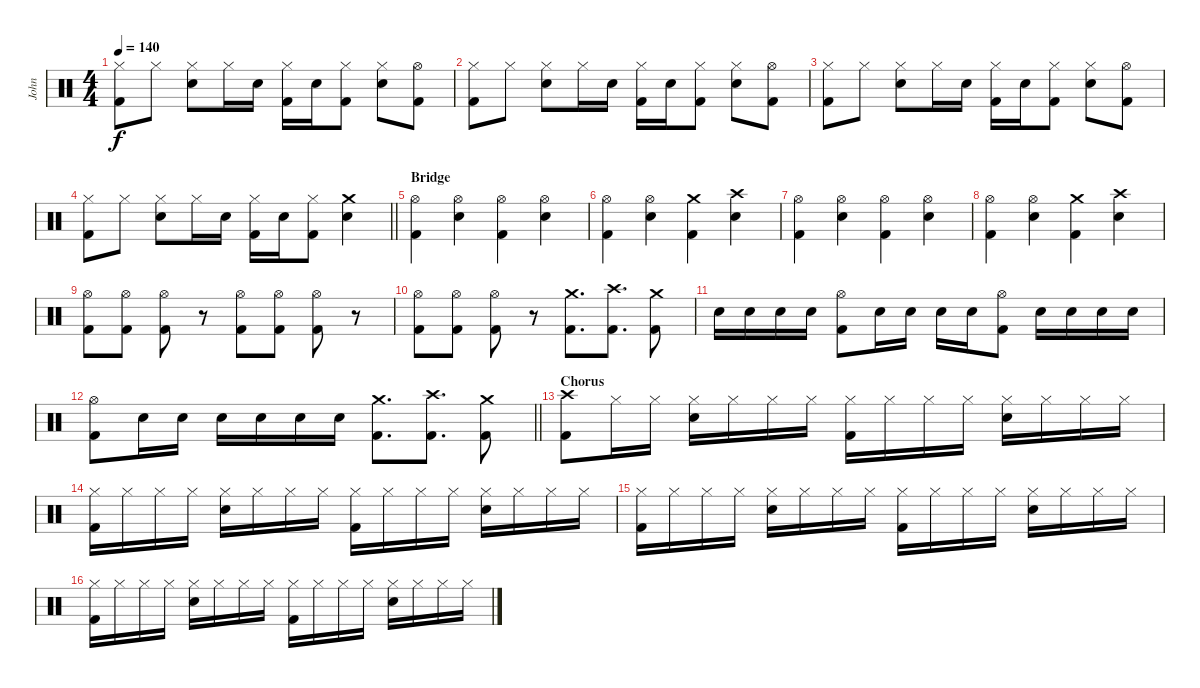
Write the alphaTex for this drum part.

\track ("John" "John") {instrument percussion}
\staff {score}
\articulation defaults
\ts (4 4)
\tempo 140
\clef neutral
\ks c
("Hi-Hat (closed)" "Kick (hit) 2").8{dy f} "Hi-Hat (closed)".8 ("Hi-Hat (closed)" "Electric Snare (hit)").8 "Hi-Hat (closed)".16 "Electric Snare (hit)".16 ("Hi-Hat (closed)" "Kick (hit) 2").16 "Electric Snare (hit)".16 ("Hi-Hat (closed)" "Kick (hit) 2").8 ("Hi-Hat (closed)" "Electric Snare (hit)").8 ("Hi-Hat (open)" "Kick (hit) 2").8 |
("Hi-Hat (closed)" "Kick (hit) 2").8 "Hi-Hat (closed)".8 ("Hi-Hat (closed)" "Electric Snare (hit)").8 "Hi-Hat (closed)".16 "Electric Snare (hit)".16 ("Hi-Hat (closed)" "Kick (hit) 2").16 "Electric Snare (hit)".16 ("Hi-Hat (closed)" "Kick (hit) 2").8 ("Hi-Hat (closed)" "Electric Snare (hit)").8 ("Hi-Hat (open)" "Kick (hit) 2").8 |
("Hi-Hat (closed)" "Kick (hit) 2").8 "Hi-Hat (closed)".8 ("Hi-Hat (closed)" "Electric Snare (hit)").8 "Hi-Hat (closed)".16 "Electric Snare (hit)".16 ("Hi-Hat (closed)" "Kick (hit) 2").16 "Electric Snare (hit)".16 ("Hi-Hat (closed)" "Kick (hit) 2").8 ("Hi-Hat (closed)" "Electric Snare (hit)").8 ("Hi-Hat (open)" "Kick (hit) 2").8 |
\barLineRight lightlight
("Hi-Hat (closed)" "Kick (hit) 2").8 "Hi-Hat (closed)".8 ("Hi-Hat (closed)" "Electric Snare (hit)").8 "Hi-Hat (closed)".16 "Electric Snare (hit)".16 ("Hi-Hat (closed)" "Kick (hit) 2").16 "Electric Snare (hit)".16 ("Hi-Hat (closed)" "Kick (hit) 2").8 ("Crash medium (hit)" "Electric Snare (hit)").4 |
\section ("" "Bridge")
("Hi-Hat (open)" "Kick (hit) 2").4 ("Hi-Hat (open)" "Electric Snare (hit)").4 ("Hi-Hat (open)" "Kick (hit) 2").4 ("Hi-Hat (open)" "Electric Snare (hit)").4 |
("Hi-Hat (open)" "Kick (hit) 2").4 ("Hi-Hat (open)" "Electric Snare (hit)").4 ("Crash medium (hit)" "Kick (hit) 2").4 ("Crash high (hit)" "Electric Snare (hit)").4 |
("Hi-Hat (open)" "Kick (hit) 2").4 ("Hi-Hat (open)" "Electric Snare (hit)").4 ("Hi-Hat (open)" "Kick (hit) 2").4 ("Hi-Hat (open)" "Electric Snare (hit)").4 |
("Hi-Hat (open)" "Kick (hit) 2").4 ("Hi-Hat (open)" "Electric Snare (hit)").4 ("Crash medium (hit)" "Kick (hit) 2").4 ("Crash high (hit)" "Electric Snare (hit)").4 |
("Hi-Hat (open)" "Kick (hit) 2").8 ("Hi-Hat (open)" "Kick (hit) 2").8 ("Hi-Hat (open)" "Kick (hit) 2").8 r.8 ("Hi-Hat (open)" "Kick (hit) 2").8 ("Hi-Hat (open)" "Kick (hit) 2").8 ("Hi-Hat (open)" "Kick (hit) 2").8 r.8 |
("Hi-Hat (open)" "Kick (hit) 2").8 ("Hi-Hat (open)" "Kick (hit) 2").8 ("Hi-Hat (open)" "Kick (hit) 2").8 r.8 ("Crash medium (hit)" "Kick (hit) 2").8{d} ("Crash high (hit)" "Kick (hit) 2").8{d} ("Crash medium (hit)" "Kick (hit) 2").8 |
"Electric Snare (hit)".16 "Electric Snare (hit)".16 "Electric Snare (hit)".16 "Electric Snare (hit)".16 ("Hi-Hat (open)" "Kick (hit) 2").8 "Electric Snare (hit)".16 "Electric Snare (hit)".16 "Electric Snare (hit)".16 "Electric Snare (hit)".16 ("Hi-Hat (open)" "Kick (hit) 2").8 "Electric Snare (hit)".16 "Electric Snare (hit)".16 "Electric Snare (hit)".16 "Electric Snare (hit)".16 |
\barLineRight lightlight
("Hi-Hat (open)" "Kick (hit) 2").8 "Electric Snare (hit)".16 "Electric Snare (hit)".16 "Electric Snare (hit)".16 "Electric Snare (hit)".16 "Electric Snare (hit)".16 "Electric Snare (hit)".16 ("Crash medium (hit)" "Kick (hit) 2").8{d} ("Crash high (hit)" "Kick (hit) 2").8{d} ("Crash medium (hit)" "Kick (hit) 2").8 |
\section ("" "Chorus")
("Crash high (hit)" "Kick (hit) 2").8 "Hi-Hat (closed)".16 "Hi-Hat (closed)".16 ("Hi-Hat (closed)" "Electric Snare (hit)").16 "Hi-Hat (closed)".16 "Hi-Hat (closed)".16 "Hi-Hat (closed)".16 ("Hi-Hat (closed)" "Kick (hit) 2").16 "Hi-Hat (closed)".16 "Hi-Hat (closed)".16 "Hi-Hat (closed)".16 ("Hi-Hat (closed)" "Electric Snare (hit)").16 "Hi-Hat (closed)".16 "Hi-Hat (closed)".16 "Hi-Hat (closed)".16 |
("Hi-Hat (closed)" "Kick (hit) 2").16 "Hi-Hat (closed)".16 "Hi-Hat (closed)".16 "Hi-Hat (closed)".16 ("Hi-Hat (closed)" "Electric Snare (hit)").16 "Hi-Hat (closed)".16 "Hi-Hat (closed)".16 "Hi-Hat (closed)".16 ("Hi-Hat (closed)" "Kick (hit) 2").16 "Hi-Hat (closed)".16 "Hi-Hat (closed)".16 "Hi-Hat (closed)".16 ("Hi-Hat (closed)" "Electric Snare (hit)").16 "Hi-Hat (closed)".16 "Hi-Hat (closed)".16 "Hi-Hat (closed)".16 |
("Hi-Hat (closed)" "Kick (hit) 2").16 "Hi-Hat (closed)".16 "Hi-Hat (closed)".16 "Hi-Hat (closed)".16 ("Hi-Hat (closed)" "Electric Snare (hit)").16 "Hi-Hat (closed)".16 "Hi-Hat (closed)".16 "Hi-Hat (closed)".16 ("Hi-Hat (closed)" "Kick (hit) 2").16 "Hi-Hat (closed)".16 "Hi-Hat (closed)".16 "Hi-Hat (closed)".16 ("Hi-Hat (closed)" "Electric Snare (hit)").16 "Hi-Hat (closed)".16 "Hi-Hat (closed)".16 "Hi-Hat (closed)".16 |
("Hi-Hat (closed)" "Kick (hit) 2").16 "Hi-Hat (closed)".16 "Hi-Hat (closed)".16 "Hi-Hat (closed)".16 ("Hi-Hat (closed)" "Electric Snare (hit)").16 "Hi-Hat (closed)".16 "Hi-Hat (closed)".16 "Hi-Hat (closed)".16 ("Hi-Hat (closed)" "Kick (hit) 2").16 "Hi-Hat (closed)".16 "Hi-Hat (closed)".16 "Hi-Hat (closed)".16 ("Hi-Hat (closed)" "Electric Snare (hit)").16 "Hi-Hat (closed)".16 "Hi-Hat (closed)".16 "Hi-Hat (closed)".16
